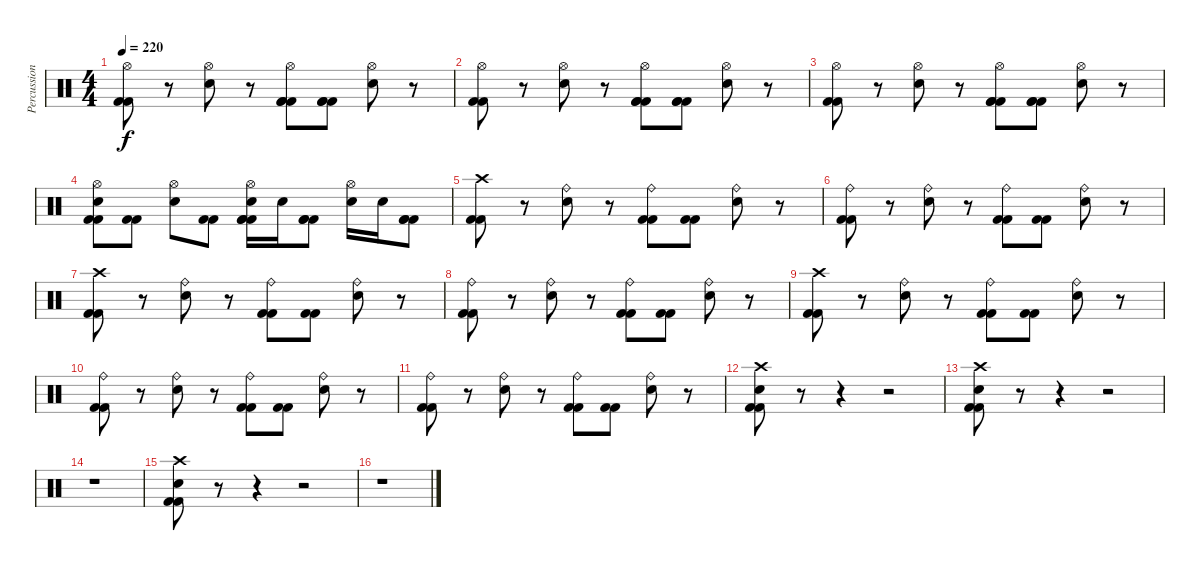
\track ("Percussion" "Percussion") {instrument percussion}
\staff {score}
\articulation defaults
\ts (4 4)
\tempo 220
\clef neutral
\ks c
("Hi-Hat (open)" "Kick (hit) 2" "Kick (hit) 2").8{dy f} r.8 ("Hi-Hat (open)" "Electric Snare (hit)").8 r.8 ("Hi-Hat (open)" "Kick (hit) 2" "Kick (hit) 2" "Kick (hit) 2").8 ("Kick (hit) 2" "Kick (hit) 2" "Kick (hit) 2").8 ("Hi-Hat (open)" "Electric Snare (hit)").8 r.8 |
("Hi-Hat (open)" "Kick (hit) 2" "Kick (hit) 2").8 r.8 ("Hi-Hat (open)" "Electric Snare (hit)").8 r.8 ("Hi-Hat (open)" "Kick (hit) 2" "Kick (hit) 2" "Kick (hit) 2").8 ("Kick (hit) 2" "Kick (hit) 2" "Kick (hit) 2").8 ("Hi-Hat (open)" "Electric Snare (hit)").8 r.8 |
("Hi-Hat (open)" "Kick (hit) 2" "Kick (hit) 2").8 r.8 ("Hi-Hat (open)" "Electric Snare (hit)").8 r.8 ("Hi-Hat (open)" "Kick (hit) 2" "Kick (hit) 2" "Kick (hit) 2").8 ("Kick (hit) 2" "Kick (hit) 2" "Kick (hit) 2").8 ("Hi-Hat (open)" "Electric Snare (hit)").8 r.8 |
("Hi-Hat (open)" "Electric Snare (hit)" "Kick (hit) 2" "Kick (hit) 2").8 ("Kick (hit) 2" "Kick (hit) 2").8 ("Hi-Hat (open)" "Electric Snare (hit)").8 ("Kick (hit) 2" "Kick (hit) 2").8 ("Hi-Hat (open)" "Electric Snare (hit)" "Kick (hit) 2" "Kick (hit) 2" "Kick (hit) 2").16 "Electric Snare (hit)".16 ("Kick (hit) 2" "Kick (hit) 2" "Kick (hit) 2").8 ("Hi-Hat (open)" "Electric Snare (hit)").16 "Electric Snare (hit)".16 ("Kick (hit) 2" "Kick (hit) 2" "Kick (hit) 2").8 |
("Crash high (hit)" "Kick (hit) 2" "Kick (hit) 2").8 r.8 ("Ride (bell)" "Electric Snare (hit)").8 r.8 ("Ride (bell)" "Kick (hit) 2" "Kick (hit) 2").8 ("Kick (hit) 2" "Kick (hit) 2").8 ("Ride (bell)" "Electric Snare (hit)").8 r.8 |
("Ride (bell)" "Kick (hit) 2" "Kick (hit) 2").8 r.8 ("Ride (bell)" "Electric Snare (hit)").8 r.8 ("Ride (bell)" "Kick (hit) 2" "Kick (hit) 2").8 ("Kick (hit) 2" "Kick (hit) 2").8 ("Ride (bell)" "Electric Snare (hit)").8 r.8 |
("Crash high (hit)" "Kick (hit) 2" "Kick (hit) 2").8 r.8 ("Ride (bell)" "Electric Snare (hit)").8 r.8 ("Ride (bell)" "Kick (hit) 2" "Kick (hit) 2").8 ("Kick (hit) 2" "Kick (hit) 2").8 ("Ride (bell)" "Electric Snare (hit)").8 r.8 |
("Ride (bell)" "Kick (hit) 2" "Kick (hit) 2").8 r.8 ("Ride (bell)" "Electric Snare (hit)").8 r.8 ("Ride (bell)" "Kick (hit) 2" "Kick (hit) 2").8 ("Kick (hit) 2" "Kick (hit) 2").8 ("Ride (bell)" "Electric Snare (hit)").8 r.8 |
("Crash high (hit)" "Kick (hit) 2" "Kick (hit) 2").8 r.8 ("Ride (bell)" "Electric Snare (hit)").8 r.8 ("Ride (bell)" "Kick (hit) 2" "Kick (hit) 2").8 ("Kick (hit) 2" "Kick (hit) 2").8 ("Ride (bell)" "Electric Snare (hit)").8 r.8 |
("Ride (bell)" "Kick (hit) 2" "Kick (hit) 2").8 r.8 ("Ride (bell)" "Electric Snare (hit)").8 r.8 ("Ride (bell)" "Kick (hit) 2" "Kick (hit) 2").8 ("Kick (hit) 2" "Kick (hit) 2").8 ("Ride (bell)" "Electric Snare (hit)").8 r.8 |
("Ride (bell)" "Kick (hit) 2" "Kick (hit) 2").8 r.8 ("Ride (bell)" "Electric Snare (hit)").8 r.8 ("Ride (bell)" "Kick (hit) 2" "Kick (hit) 2").8 ("Kick (hit) 2" "Kick (hit) 2").8 ("Ride (bell)" "Electric Snare (hit)").8 r.8 |
("Crash high (hit)" "Electric Snare (hit)" "Kick (hit) 2" "Kick (hit) 2").8 r.8 r.4 r.2 |
("Crash high (hit)" "Electric Snare (hit)" "Kick (hit) 2" "Kick (hit) 2").8 r.8 r.4 r.2 |
r.1 |
("Crash high (hit)" "Electric Snare (hit)" "Kick (hit) 2" "Kick (hit) 2").8 r.8 r.4 r.2 |
r.1
